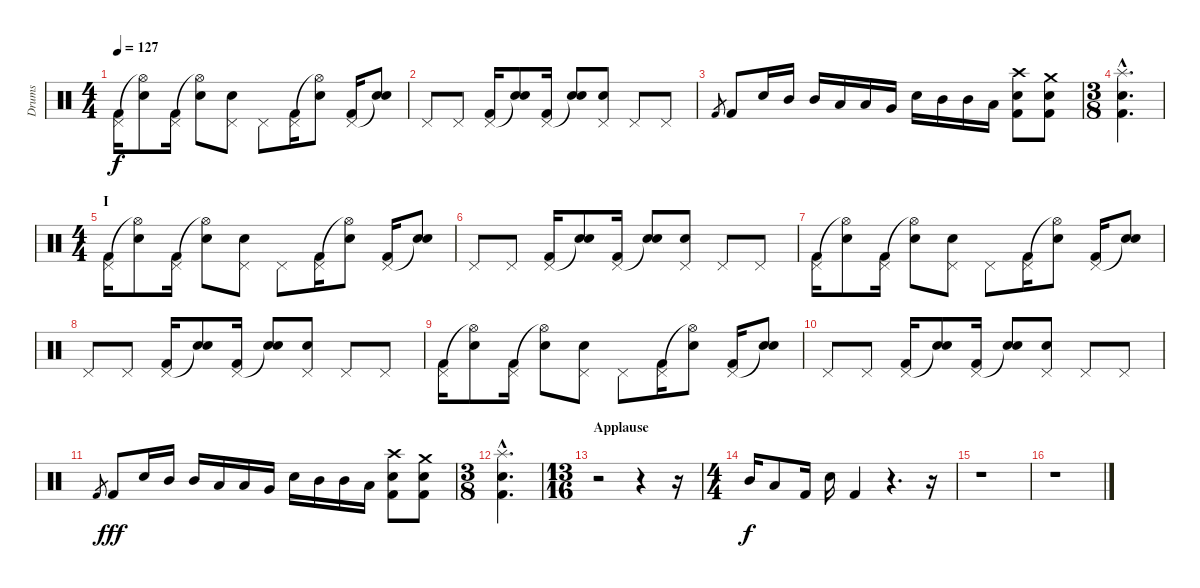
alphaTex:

\track ("Drums" "Drums") {instrument percussion}
\staff {score}
\articulation defaults
\ts (4 4)
\tempo 127
\clef neutral
\ks c
("Pedal Hi-Hat (hit)" "Kick (hit) 2").16{dy f} ("Hi-Hat (open)"{t} "Electric Snare (hit)").8 ("Pedal Hi-Hat (hit)" "Kick (hit) 2").16 ("Hi-Hat (open)"{t} "Electric Snare (hit)").8 ("Pedal Hi-Hat (hit)" "Electric Snare (hit)").8 "Pedal Hi-Hat (hit)".8 ("Pedal Hi-Hat (hit)" "Kick (hit) 2").16 ("Hi-Hat (open)"{t} "Electric Snare (hit)").8 ("Pedal Hi-Hat (hit)" "Kick (hit) 2").16 ("Snare (hit)"{t} "Electric Snare (hit)").8 |
"Pedal Hi-Hat (hit)".8 "Pedal Hi-Hat (hit)".8 ("Pedal Hi-Hat (hit)" "Kick (hit) 2").16 ("Snare (hit)"{t} "Electric Snare (hit)").8 ("Pedal Hi-Hat (hit)" "Kick (hit) 2").16 ("Snare (hit)"{t} "Electric Snare (hit)").8 ("Pedal Hi-Hat (hit)" "Electric Snare (hit)").8 "Pedal Hi-Hat (hit)".8 "Pedal Hi-Hat (hit)".8 |
"Kick (hit) 2".8{gr} "Kick (hit) 2".8 "Electric Snare (hit)".16 "Mid Tom (hit)".16 "Mid Tom (hit)".16 "Low Tom (hit)".16 "Low Tom (hit)".16 "Very Low Tom (hit)".16 "Electric Snare (hit)".16 "Mid Tom (hit)".16 "Mid Tom (hit)".16 "Low Tom (hit)".16 ("Crash high (hit)" "Electric Snare (hit)" "Kick (hit) 2").8 ("Crash medium (hit)" "Electric Snare (hit)" "Kick (hit) 2").8 |
\ts (3 8)
("Splash (hit)"{hac} "Electric Snare (hit)"{hac} "Kick (hit) 2"{hac}).4{d} |
\ts (4 4)
\section ("" "I")
("Pedal Hi-Hat (hit)" "Kick (hit) 2").16 ("Hi-Hat (open)"{t} "Electric Snare (hit)").8 ("Pedal Hi-Hat (hit)" "Kick (hit) 2").16 ("Hi-Hat (open)"{t} "Electric Snare (hit)").8 ("Pedal Hi-Hat (hit)" "Electric Snare (hit)").8 "Pedal Hi-Hat (hit)".8 ("Pedal Hi-Hat (hit)" "Kick (hit) 2").16 ("Hi-Hat (open)"{t} "Electric Snare (hit)").8 ("Pedal Hi-Hat (hit)" "Kick (hit) 2").16 ("Snare (hit)"{t} "Electric Snare (hit)").8 |
"Pedal Hi-Hat (hit)".8 "Pedal Hi-Hat (hit)".8 ("Pedal Hi-Hat (hit)" "Kick (hit) 2").16 ("Snare (hit)"{t} "Electric Snare (hit)").8 ("Pedal Hi-Hat (hit)" "Kick (hit) 2").16 ("Snare (hit)"{t} "Electric Snare (hit)").8 ("Pedal Hi-Hat (hit)" "Electric Snare (hit)").8 "Pedal Hi-Hat (hit)".8 "Pedal Hi-Hat (hit)".8 |
("Pedal Hi-Hat (hit)" "Kick (hit) 2").16 ("Hi-Hat (open)"{t} "Electric Snare (hit)").8 ("Pedal Hi-Hat (hit)" "Kick (hit) 2").16 ("Hi-Hat (open)"{t} "Electric Snare (hit)").8 ("Pedal Hi-Hat (hit)" "Electric Snare (hit)").8 "Pedal Hi-Hat (hit)".8 ("Pedal Hi-Hat (hit)" "Kick (hit) 2").16 ("Hi-Hat (open)"{t} "Electric Snare (hit)").8 ("Pedal Hi-Hat (hit)" "Kick (hit) 2").16 ("Snare (hit)"{t} "Electric Snare (hit)").8 |
"Pedal Hi-Hat (hit)".8 "Pedal Hi-Hat (hit)".8 ("Pedal Hi-Hat (hit)" "Kick (hit) 2").16 ("Snare (hit)"{t} "Electric Snare (hit)").8 ("Pedal Hi-Hat (hit)" "Kick (hit) 2").16 ("Snare (hit)"{t} "Electric Snare (hit)").8 ("Pedal Hi-Hat (hit)" "Electric Snare (hit)").8 "Pedal Hi-Hat (hit)".8 "Pedal Hi-Hat (hit)".8 |
("Pedal Hi-Hat (hit)" "Kick (hit) 2").16 ("Hi-Hat (open)"{t} "Electric Snare (hit)").8 ("Pedal Hi-Hat (hit)" "Kick (hit) 2").16 ("Hi-Hat (open)"{t} "Electric Snare (hit)").8 ("Pedal Hi-Hat (hit)" "Electric Snare (hit)").8 "Pedal Hi-Hat (hit)".8 ("Pedal Hi-Hat (hit)" "Kick (hit) 2").16 ("Hi-Hat (open)"{t} "Electric Snare (hit)").8 ("Pedal Hi-Hat (hit)" "Kick (hit) 2").16 ("Snare (hit)"{t} "Electric Snare (hit)").8 |
"Pedal Hi-Hat (hit)".8 "Pedal Hi-Hat (hit)".8 ("Pedal Hi-Hat (hit)" "Kick (hit) 2").16 ("Snare (hit)"{t} "Electric Snare (hit)").8 ("Pedal Hi-Hat (hit)" "Kick (hit) 2").16 ("Snare (hit)"{t} "Electric Snare (hit)").8 ("Pedal Hi-Hat (hit)" "Electric Snare (hit)").8 "Pedal Hi-Hat (hit)".8 "Pedal Hi-Hat (hit)".8 |
"Kick (hit) 2".8{gr} "Kick (hit) 2".8{dy fff volume 16} "Electric Snare (hit)".16 "Mid Tom (hit)".16 "Mid Tom (hit)".16 "Low Tom (hit)".16 "Low Tom (hit)".16 "Very Low Tom (hit)".16 "Electric Snare (hit)".16 "Mid Tom (hit)".16 "Mid Tom (hit)".16 "Low Tom (hit)".16 ("Crash high (hit)" "Electric Snare (hit)" "Kick (hit) 2").8 ("Crash medium (hit)" "Electric Snare (hit)" "Kick (hit) 2").8 |
\ts (3 8)
("Splash (hit)"{hac} "Electric Snare (hit)"{hac} "Kick (hit) 2"{hac}).4{d} |
\ts (13 16)
\section ("" "Applause")
r.2 r.4 r.16 |
\ts (4 4)
"Mid Tom (hit)".16{dy f} "Low Tom (hit)".8 "Kick (hit) 2".16 "Electric Snare (hit)".16 "Kick (hit) 2".4 r.4{d} r.16 |
r.1 |
r.1
